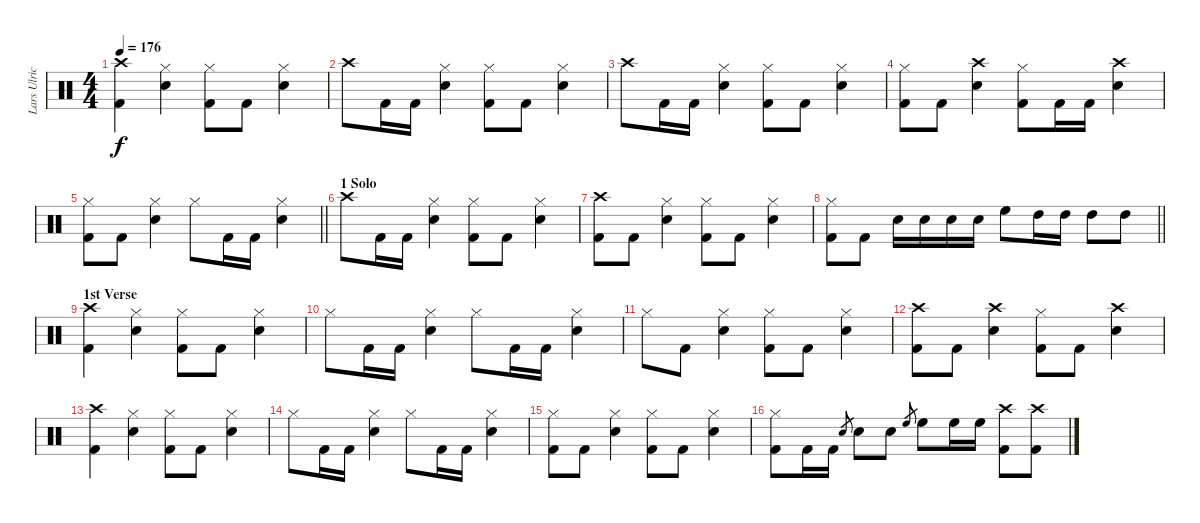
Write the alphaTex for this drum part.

\track ("Lars Ulrich" "Lars Ulric") {instrument percussion}
\staff {score}
\articulation defaults
\ts (4 4)
\tempo 176
\clef neutral
\ks c
("Crash high (hit)" "Kick (hit) 2").4{dy f} ("Hi-Hat (closed)" "Snare (hit) 2").4 ("Hi-Hat (closed)" "Kick (hit) 2").8 "Kick (hit) 2".8 ("Hi-Hat (closed)" "Snare (hit) 2").4 |
"Crash high (hit)".8 "Kick (hit) 2".16 "Kick (hit) 2".16 ("Hi-Hat (closed)" "Snare (hit) 2").4 ("Hi-Hat (closed)" "Kick (hit) 2").8 "Kick (hit) 2".8 ("Hi-Hat (closed)" "Snare (hit) 2").4 |
"Crash high (hit)".8 "Kick (hit) 2".16 "Kick (hit) 2".16 ("Hi-Hat (closed)" "Snare (hit) 2").4 ("Hi-Hat (closed)" "Kick (hit) 2").8 "Kick (hit) 2".8 ("Hi-Hat (closed)" "Snare (hit) 2").4 |
("Hi-Hat (closed)" "Kick (hit) 2").8 "Kick (hit) 2".8 ("Crash high (hit)" "Snare (hit) 2").4 ("Hi-Hat (closed)" "Kick (hit) 2").8 "Kick (hit) 2".16 "Kick (hit) 2".16 ("Crash high (hit)" "Snare (hit) 2").4 |
\barLineRight lightlight
("Hi-Hat (closed)" "Kick (hit) 2").8 "Kick (hit) 2".8 ("Hi-Hat (closed)" "Snare (hit) 2").4 "Hi-Hat (closed)".8 "Kick (hit) 2".16 "Kick (hit) 2".16 ("Hi-Hat (closed)" "Snare (hit) 2").4 |
\section ("" "1 Solo")
"Crash high (hit)".8 "Kick (hit) 2".16 "Kick (hit) 2".16 ("Hi-Hat (closed)" "Snare (hit) 2").4 ("Hi-Hat (closed)" "Kick (hit) 2").8 "Kick (hit) 2".8 ("Hi-Hat (closed)" "Snare (hit) 2").4 |
("Crash high (hit)" "Kick (hit) 2").8 "Kick (hit) 2".8 ("Hi-Hat (closed)" "Snare (hit) 2").4 ("Hi-Hat (closed)" "Kick (hit) 2").8 "Kick (hit) 2".8 ("Hi-Hat (closed)" "Snare (hit) 2").4 |
\barLineRight lightlight
("Hi-Hat (closed)" "Kick (hit) 2").8 "Kick (hit) 2".8 "Snare (hit) 2".16 "Snare (hit) 2".16 "Snare (hit) 2".16 "Snare (hit) 2".16 "High Floor Tom (hit)".8 "High Tom (hit)".16 "High Tom (hit)".16 "High Tom (hit)".8 "High Tom (hit)".8 |
\section ("" "1st Verse")
("Crash high (hit)" "Kick (hit) 2").4 ("Hi-Hat (closed)" "Snare (hit) 2").4 ("Hi-Hat (closed)" "Kick (hit) 2").8 "Kick (hit) 2".8 ("Hi-Hat (closed)" "Snare (hit) 2").4 |
"Hi-Hat (closed)".8 "Kick (hit) 2".16 "Kick (hit) 2".16 ("Hi-Hat (closed)" "Snare (hit) 2").4 "Hi-Hat (closed)".8 "Kick (hit) 2".16 "Kick (hit) 2".16 ("Hi-Hat (closed)" "Snare (hit) 2").4 |
"Hi-Hat (closed)".8 "Kick (hit) 2".8 ("Hi-Hat (closed)" "Snare (hit) 2").4 ("Hi-Hat (closed)" "Kick (hit) 2").8 "Kick (hit) 2".8 ("Hi-Hat (closed)" "Snare (hit) 2").4 |
("Crash high (hit)" "Kick (hit) 2").8 "Kick (hit) 2".8 ("Crash high (hit)" "Snare (hit) 2").4 ("Hi-Hat (closed)" "Kick (hit) 2").8 "Kick (hit) 2".8 ("Crash high (hit)" "Snare (hit) 2").4 |
("Crash high (hit)" "Kick (hit) 2").4 ("Hi-Hat (closed)" "Snare (hit) 2").4 ("Hi-Hat (closed)" "Kick (hit) 2").8 "Kick (hit) 2".8 ("Hi-Hat (closed)" "Snare (hit) 2").4 |
"Hi-Hat (closed)".8 "Kick (hit) 2".16 "Kick (hit) 2".16 ("Hi-Hat (closed)" "Snare (hit) 2").4 "Hi-Hat (closed)".8 "Kick (hit) 2".16 "Kick (hit) 2".16 ("Hi-Hat (closed)" "Snare (hit) 2").4 |
("Hi-Hat (closed)" "Kick (hit) 2").8 "Kick (hit) 2".8 ("Hi-Hat (closed)" "Snare (hit) 2").4 ("Hi-Hat (closed)" "Kick (hit) 2").8 "Kick (hit) 2".8 ("Hi-Hat (closed)" "Snare (hit) 2").4 |
("Hi-Hat (closed)" "Kick (hit) 2").8 "Kick (hit) 2".16 "Kick (hit) 2".16 "Snare (hit) 2".8{gr} "Snare (hit) 2".8 "Snare (hit) 2".8 "High Floor Tom (hit)".8{gr} "High Floor Tom (hit)".8 "High Floor Tom (hit)".16 "High Floor Tom (hit)".16 ("Crash high (hit)" "Kick (hit) 2").8 ("Crash high (hit)" "Kick (hit) 2").8
